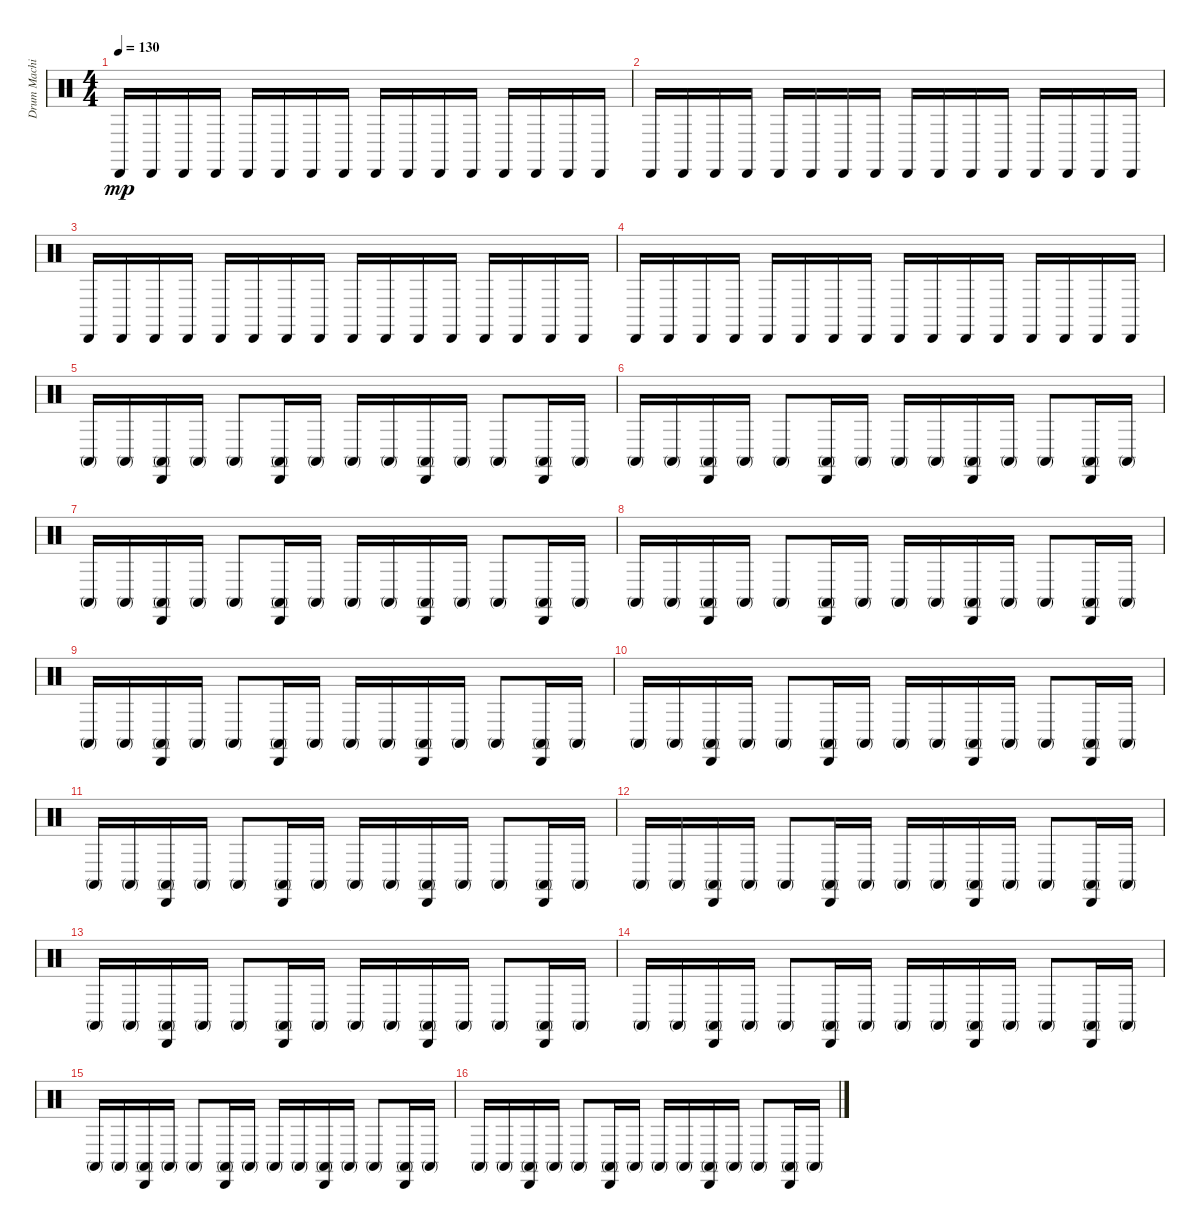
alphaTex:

\track ("Drum Machine" "Drum Machi") {instrument percussion}
\staff {score}
\articulation defaults
\ts (4 4)
\tempo 130
\clef neutral
\ks c "Cabasa (hit)".16{dy mp} "Cabasa (hit)".16 "Cabasa (hit)".16 "Cabasa (hit)".16 "Cabasa (hit)".16 "Cabasa (hit)".16 "Cabasa (hit)".16 "Cabasa (hit)".16 "Cabasa (hit)".16 "Cabasa (hit)".16 "Cabasa (hit)".16 "Cabasa (hit)".16 "Cabasa (hit)".16 "Cabasa (hit)".16 "Cabasa (hit)".16 "Cabasa (hit)".16
|
"Cabasa (hit)".16 "Cabasa (hit)".16 "Cabasa (hit)".16 "Cabasa (hit)".16 "Cabasa (hit)".16 "Cabasa (hit)".16 "Cabasa (hit)".16 "Cabasa (hit)".16 "Cabasa (hit)".16 "Cabasa (hit)".16 "Cabasa (hit)".16 "Cabasa (hit)".16 "Cabasa (hit)".16 "Cabasa (hit)".16 "Cabasa (hit)".16 "Cabasa (hit)".16 |
"Cabasa (hit)".16 "Cabasa (hit)".16 "Cabasa (hit)".16 "Cabasa (hit)".16 "Cabasa (hit)".16 "Cabasa (hit)".16 "Cabasa (hit)".16 "Cabasa (hit)".16 "Cabasa (hit)".16 "Cabasa (hit)".16 "Cabasa (hit)".16 "Cabasa (hit)".16 "Cabasa (hit)".16 "Cabasa (hit)".16 "Cabasa (hit)".16 "Cabasa (hit)".16 |
"Cabasa (hit)".16 "Cabasa (hit)".16 "Cabasa (hit)".16 "Cabasa (hit)".16 "Cabasa (hit)".16 "Cabasa (hit)".16 "Cabasa (hit)".16 "Cabasa (hit)".16 "Cabasa (hit)".16 "Cabasa (hit)".16 "Cabasa (hit)".16 "Cabasa (hit)".16 "Cabasa (hit)".16 "Cabasa (hit)".16 "Cabasa (hit)".16 "Cabasa (hit)".16 |
"Conga high (mute)".16 "Conga high (mute)".16 ("Cabasa (hit)" "Conga high (mute)").16 "Conga high (mute)".16 "Conga high (mute)".8 ("Cabasa (hit)" "Conga high (mute)").16 "Conga high (mute)".16 "Conga high (mute)".16 "Conga high (mute)".16 ("Cabasa (hit)" "Conga high (mute)").16 "Conga high (mute)".16 "Conga high (mute)".8 ("Cabasa (hit)" "Conga high (mute)").16 "Conga high (mute)".16 |
"Conga high (mute)".16 "Conga high (mute)".16 ("Cabasa (hit)" "Conga high (mute)").16 "Conga high (mute)".16 "Conga high (mute)".8 ("Cabasa (hit)" "Conga high (mute)").16 "Conga high (mute)".16 "Conga high (mute)".16 "Conga high (mute)".16 ("Cabasa (hit)" "Conga high (mute)").16 "Conga high (mute)".16 "Conga high (mute)".8 ("Cabasa (hit)" "Conga high (mute)").16 "Conga high (mute)".16 |
"Conga high (mute)".16 "Conga high (mute)".16 ("Cabasa (hit)" "Conga high (mute)").16 "Conga high (mute)".16 "Conga high (mute)".8 ("Cabasa (hit)" "Conga high (mute)").16 "Conga high (mute)".16 "Conga high (mute)".16 "Conga high (mute)".16 ("Cabasa (hit)" "Conga high (mute)").16 "Conga high (mute)".16 "Conga high (mute)".8 ("Cabasa (hit)" "Conga high (mute)").16 "Conga high (mute)".16 |
"Conga high (mute)".16 "Conga high (mute)".16 ("Cabasa (hit)" "Conga high (mute)").16 "Conga high (mute)".16 "Conga high (mute)".8 ("Cabasa (hit)" "Conga high (mute)").16 "Conga high (mute)".16 "Conga high (mute)".16 "Conga high (mute)".16 ("Cabasa (hit)" "Conga high (mute)").16 "Conga high (mute)".16 "Conga high (mute)".8 ("Cabasa (hit)" "Conga high (mute)").16 "Conga high (mute)".16 |
"Conga high (mute)".16 "Conga high (mute)".16 ("Cabasa (hit)" "Conga high (mute)").16 "Conga high (mute)".16 "Conga high (mute)".8 ("Cabasa (hit)" "Conga high (mute)").16 "Conga high (mute)".16 "Conga high (mute)".16 "Conga high (mute)".16 ("Cabasa (hit)" "Conga high (mute)").16 "Conga high (mute)".16 "Conga high (mute)".8 ("Cabasa (hit)" "Conga high (mute)").16 "Conga high (mute)".16 |
"Conga high (mute)".16 "Conga high (mute)".16 ("Cabasa (hit)" "Conga high (mute)").16 "Conga high (mute)".16 "Conga high (mute)".8 ("Cabasa (hit)" "Conga high (mute)").16 "Conga high (mute)".16 "Conga high (mute)".16 "Conga high (mute)".16 ("Cabasa (hit)" "Conga high (mute)").16 "Conga high (mute)".16 "Conga high (mute)".8 ("Cabasa (hit)" "Conga high (mute)").16 "Conga high (mute)".16 |
"Conga high (mute)".16 "Conga high (mute)".16 ("Cabasa (hit)" "Conga high (mute)").16 "Conga high (mute)".16 "Conga high (mute)".8 ("Cabasa (hit)" "Conga high (mute)").16 "Conga high (mute)".16 "Conga high (mute)".16 "Conga high (mute)".16 ("Cabasa (hit)" "Conga high (mute)").16 "Conga high (mute)".16 "Conga high (mute)".8 ("Cabasa (hit)" "Conga high (mute)").16 "Conga high (mute)".16 |
"Conga high (mute)".16 "Conga high (mute)".16 ("Cabasa (hit)" "Conga high (mute)").16 "Conga high (mute)".16 "Conga high (mute)".8 ("Cabasa (hit)" "Conga high (mute)").16 "Conga high (mute)".16 "Conga high (mute)".16 "Conga high (mute)".16 ("Cabasa (hit)" "Conga high (mute)").16 "Conga high (mute)".16 "Conga high (mute)".8 ("Cabasa (hit)" "Conga high (mute)").16 "Conga high (mute)".16 |
"Conga high (mute)".16 "Conga high (mute)".16 ("Cabasa (hit)" "Conga high (mute)").16 "Conga high (mute)".16 "Conga high (mute)".8 ("Cabasa (hit)" "Conga high (mute)").16 "Conga high (mute)".16 "Conga high (mute)".16 "Conga high (mute)".16 ("Cabasa (hit)" "Conga high (mute)").16 "Conga high (mute)".16 "Conga high (mute)".8 ("Cabasa (hit)" "Conga high (mute)").16 "Conga high (mute)".16 |
"Conga high (mute)".16 "Conga high (mute)".16 ("Cabasa (hit)" "Conga high (mute)").16 "Conga high (mute)".16 "Conga high (mute)".8 ("Cabasa (hit)" "Conga high (mute)").16 "Conga high (mute)".16 "Conga high (mute)".16 "Conga high (mute)".16 ("Cabasa (hit)" "Conga high (mute)").16 "Conga high (mute)".16 "Conga high (mute)".8 ("Cabasa (hit)" "Conga high (mute)").16 "Conga high (mute)".16 |
"Conga high (mute)".16 "Conga high (mute)".16 ("Cabasa (hit)" "Conga high (mute)").16 "Conga high (mute)".16 "Conga high (mute)".8 ("Cabasa (hit)" "Conga high (mute)").16 "Conga high (mute)".16 "Conga high (mute)".16 "Conga high (mute)".16 ("Cabasa (hit)" "Conga high (mute)").16 "Conga high (mute)".16 "Conga high (mute)".8 ("Cabasa (hit)" "Conga high (mute)").16 "Conga high (mute)".16 |
"Conga high (mute)".16 "Conga high (mute)".16 ("Cabasa (hit)" "Conga high (mute)").16 "Conga high (mute)".16 "Conga high (mute)".8 ("Cabasa (hit)" "Conga high (mute)").16 "Conga high (mute)".16 "Conga high (mute)".16 "Conga high (mute)".16 ("Cabasa (hit)" "Conga high (mute)").16 "Conga high (mute)".16 "Conga high (mute)".8 ("Cabasa (hit)" "Conga high (mute)").16 "Conga high (mute)".16
